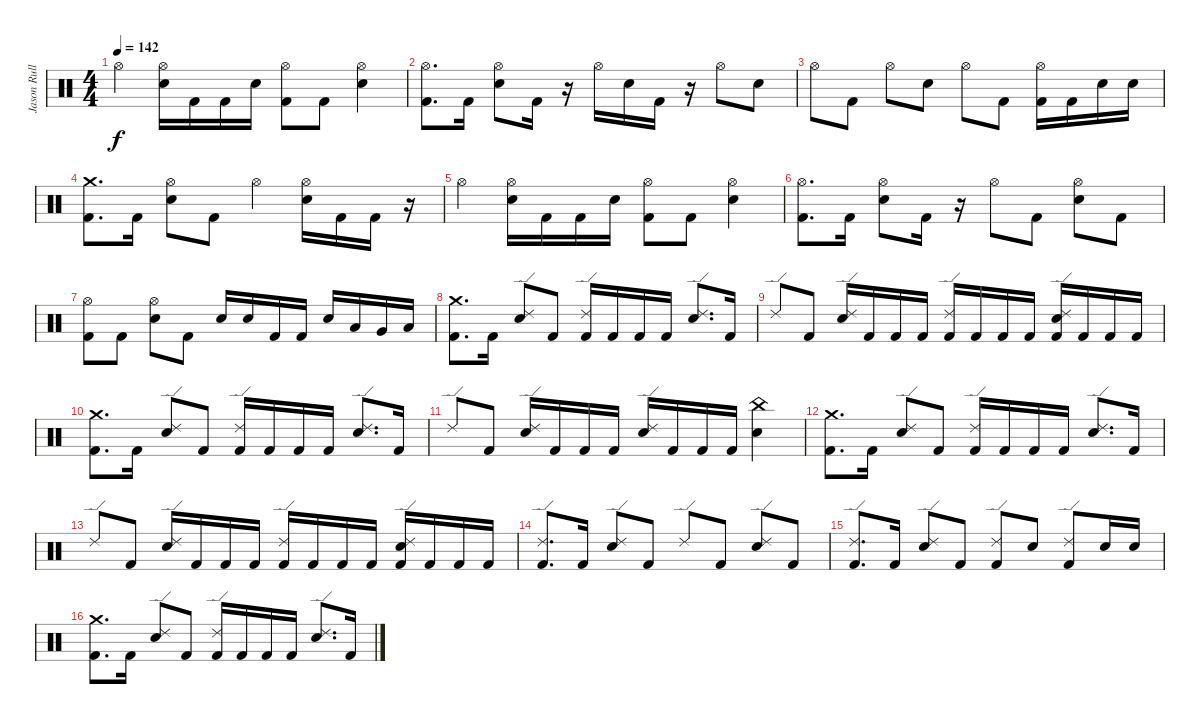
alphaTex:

\track ("Jason Rullo (drums)" "Jason Rull") {solo instrument percussion}
\staff {score}
\articulation defaults
\ts (4 4)
\tempo 142
\clef neutral
\ks c "Hi-Hat (open)".4{dy f}
("Hi-Hat (open)" "Electric Snare (hit)").16 "Kick (hit) 2".16 "Kick (hit) 2".16 "Electric Snare (hit)".16 ("Hi-Hat (open)" "Kick (hit) 2").8 "Kick (hit) 2".8 ("Hi-Hat (open)" "Electric Snare (hit)").4 |
("Hi-Hat (open)" "Kick (hit) 2").8{d} "Kick (hit) 2".16 ("Hi-Hat (open)" "Electric Snare (hit)").8 "Kick (hit) 2".16 r.16 "Hi-Hat (open)".16 "Electric Snare (hit)".16 "Kick (hit) 2".16 r.16 "Hi-Hat (open)".8 "Electric Snare (hit)".8 |
"Hi-Hat (open)".8 "Kick (hit) 2".8 "Hi-Hat (open)".8 "Electric Snare (hit)".8 "Hi-Hat (open)".8 "Kick (hit) 2".8 ("Hi-Hat (open)" "Kick (hit) 2").16 "Kick (hit) 2".16 "Electric Snare (hit)".16 "Electric Snare (hit)".16 |
("Crash medium (hit)" "Kick (hit) 2").8{d} "Kick (hit) 2".16 ("Hi-Hat (open)" "Electric Snare (hit)").8 "Kick (hit) 2".8 "Hi-Hat (open)".4 ("Hi-Hat (open)" "Electric Snare (hit)").16 "Kick (hit) 2".16 "Kick (hit) 2".16 r.16 |
"Hi-Hat (open)".4 ("Hi-Hat (open)" "Electric Snare (hit)").16 "Kick (hit) 2".16 "Kick (hit) 2".16 "Electric Snare (hit)".16 ("Hi-Hat (open)" "Kick (hit) 2").8 "Kick (hit) 2".8 ("Hi-Hat (open)" "Electric Snare (hit)").4 |
("Hi-Hat (open)" "Kick (hit) 2").8{d} "Kick (hit) 2".16 ("Hi-Hat (open)" "Electric Snare (hit)").8 "Kick (hit) 2".16 r.16 "Hi-Hat (open)".8 "Kick (hit) 2".8 ("Electric Snare (hit)" "Hi-Hat (open)").8 "Kick (hit) 2".8 |
("Hi-Hat (open)" "Kick (hit) 2").8 "Kick (hit) 2".8 ("Hi-Hat (open)" "Electric Snare (hit)").8 "Kick (hit) 2".8 "Electric Snare (hit)".16 "Electric Snare (hit)".16 "Kick (hit) 2".16 "Kick (hit) 2".16 "Electric Snare (hit)".16 "Low Tom (hit)".16 "Very Low Tom (hit)".16 "Low Floor Tom (hit)".16 |
("Crash medium (hit)" "Kick (hit) 2").8{d volume 16 balance 8} "Kick (hit) 2".16 ("Ride (edge) 2" "Electric Snare (hit)").8 "Kick (hit) 2".8 ("Ride (edge) 2" "Kick (hit) 2").16 "Kick (hit) 2".16 "Kick (hit) 2".16 "Kick (hit) 2".16 ("Ride (edge) 2" "Electric Snare (hit)").8{d} "Kick (hit) 2".16 |
"Ride (edge) 2".8 "Kick (hit) 2".8 ("Electric Snare (hit)" "Ride (edge) 2").16 "Kick (hit) 2".16 "Kick (hit) 2".16 "Kick (hit) 2".16 ("Kick (hit) 2" "Ride (edge) 2").16 "Kick (hit) 2".16 "Kick (hit) 2".16 "Kick (hit) 2".16 ("Electric Snare (hit)" "Kick (hit) 2" "Ride (edge) 2").16 "Kick (hit) 2".16 "Kick (hit) 2".16 "Kick (hit) 2".16 |
("Crash medium (hit)" "Kick (hit) 2").8{d} "Kick (hit) 2".16 ("Ride (edge) 2" "Electric Snare (hit)").8 "Kick (hit) 2".8 ("Ride (edge) 2" "Kick (hit) 2").16 "Kick (hit) 2".16 "Kick (hit) 2".16 "Kick (hit) 2".16 ("Ride (edge) 2" "Electric Snare (hit)").8{d} "Kick (hit) 2".16 |
"Ride (edge) 2".8 "Kick (hit) 2".8 ("Electric Snare (hit)" "Ride (edge) 2").16 "Kick (hit) 2".16 "Kick (hit) 2".16 "Kick (hit) 2".16 ("Electric Snare (hit)" "Ride (edge) 2").16 "Kick (hit) 2".16 "Kick (hit) 2".16 "Kick (hit) 2".16 ("China (hit)" "Electric Snare (hit)").4 |
("Crash medium (hit)" "Kick (hit) 2").8{d} "Kick (hit) 2".16 ("Ride (edge) 2" "Electric Snare (hit)").8 "Kick (hit) 2".8 ("Ride (edge) 2" "Kick (hit) 2").16 "Kick (hit) 2".16 "Kick (hit) 2".16 "Kick (hit) 2".16 ("Ride (edge) 2" "Electric Snare (hit)").8{d} "Kick (hit) 2".16 |
"Ride (edge) 2".8 "Kick (hit) 2".8 ("Electric Snare (hit)" "Ride (edge) 2").16 "Kick (hit) 2".16 "Kick (hit) 2".16 "Kick (hit) 2".16 ("Kick (hit) 2" "Ride (edge) 2").16 "Kick (hit) 2".16 "Kick (hit) 2".16 "Kick (hit) 2".16 ("Electric Snare (hit)" "Kick (hit) 2" "Ride (edge) 2").16 "Kick (hit) 2".16 "Kick (hit) 2".16 "Kick (hit) 2".16 |
("Ride (edge) 2" "Kick (hit) 2").8{d} "Kick (hit) 2".16 ("Ride (edge) 2" "Electric Snare (hit)").8 "Kick (hit) 2".8 "Ride (edge) 2".8 "Kick (hit) 2".8 ("Ride (edge) 2" "Electric Snare (hit)").8 "Kick (hit) 2".8 |
("Ride (edge) 2" "Kick (hit) 2").8{d} "Kick (hit) 2".16 ("Ride (edge) 2" "Electric Snare (hit)").8 "Kick (hit) 2".8 ("Kick (hit) 2" "Ride (edge) 2").8 "Electric Snare (hit)".8 ("Ride (edge) 2" "Kick (hit) 2").8 "Electric Snare (hit)".16 "Electric Snare (hit)".16 |
("Crash medium (hit)" "Kick (hit) 2").8{d} "Kick (hit) 2".16 ("Ride (edge) 2" "Electric Snare (hit)").8 "Kick (hit) 2".8 ("Ride (edge) 2" "Kick (hit) 2").16 "Kick (hit) 2".16 "Kick (hit) 2".16 "Kick (hit) 2".16 ("Ride (edge) 2" "Electric Snare (hit)").8{d} "Kick (hit) 2".16
